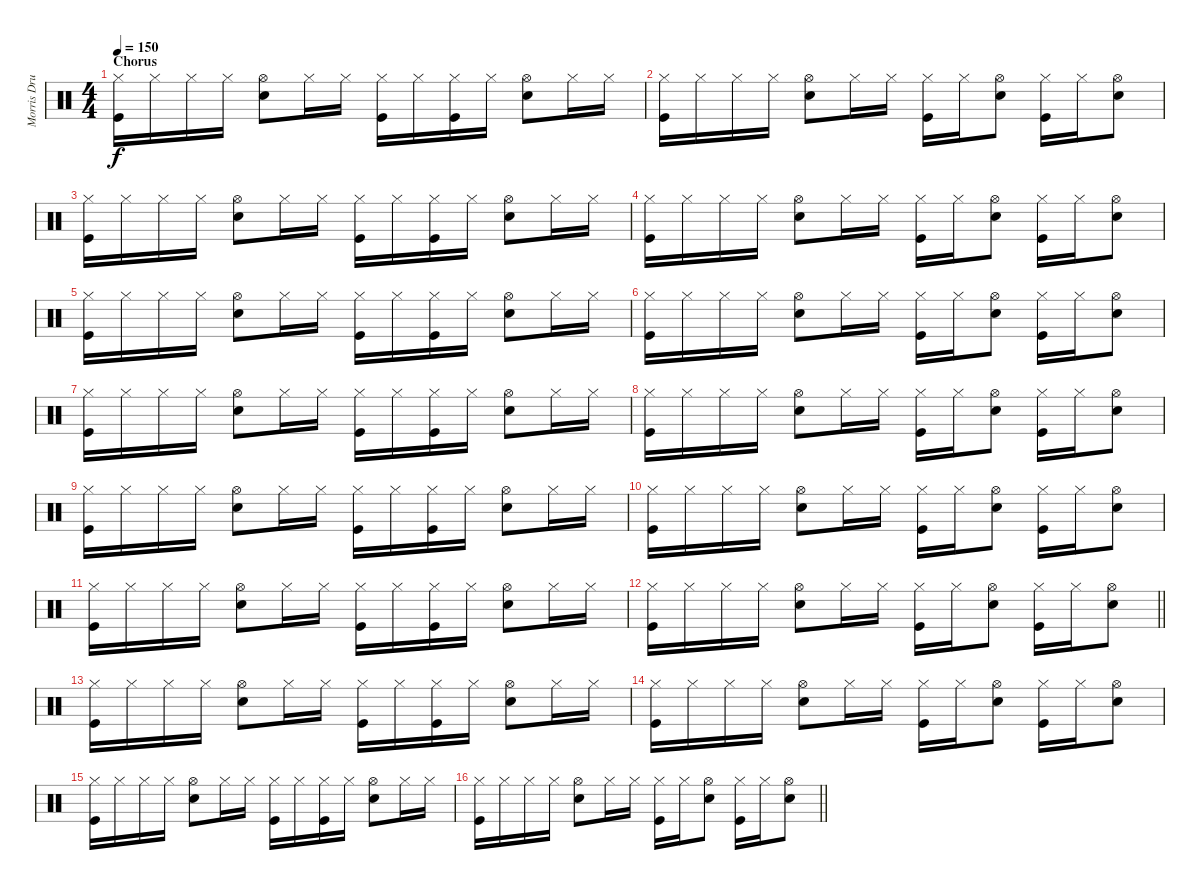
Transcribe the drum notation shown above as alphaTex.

\track ("Morris Drums" "Morris Dru") {instrument percussion}
\staff {score}
\articulation defaults
\ts (4 4)
\section ("" "Chorus")
\tempo 150
\clef neutral
\ks c
("Hi-Hat (closed)" "Kick (hit)").16{dy f} "Hi-Hat (closed)".16 "Hi-Hat (closed)".16 "Hi-Hat (closed)".16 ("Hi-Hat (open)" "Snare (hit) 2").8 "Hi-Hat (closed)".16 "Hi-Hat (closed)".16 ("Hi-Hat (closed)" "Kick (hit)").16 "Hi-Hat (closed)".16 ("Hi-Hat (closed)" "Kick (hit)").16 "Hi-Hat (closed)".16 ("Hi-Hat (open)" "Snare (hit) 2").8 "Hi-Hat (closed)".16 "Hi-Hat (closed)".16 |
("Hi-Hat (closed)" "Kick (hit)").16 "Hi-Hat (closed)".16 "Hi-Hat (closed)".16 "Hi-Hat (closed)".16 ("Hi-Hat (open)" "Snare (hit) 2").8 "Hi-Hat (closed)".16 "Hi-Hat (closed)".16 ("Hi-Hat (closed)" "Kick (hit)").16 "Hi-Hat (closed)".16 ("Hi-Hat (open)" "Snare (hit) 2").8 ("Hi-Hat (closed)" "Kick (hit)").16 "Hi-Hat (closed)".16 ("Hi-Hat (open)" "Snare (hit) 2").8 |
("Hi-Hat (closed)" "Kick (hit)").16 "Hi-Hat (closed)".16 "Hi-Hat (closed)".16 "Hi-Hat (closed)".16 ("Hi-Hat (open)" "Snare (hit) 2").8 "Hi-Hat (closed)".16 "Hi-Hat (closed)".16 ("Hi-Hat (closed)" "Kick (hit)").16 "Hi-Hat (closed)".16 ("Hi-Hat (closed)" "Kick (hit)").16 "Hi-Hat (closed)".16 ("Hi-Hat (open)" "Snare (hit) 2").8 "Hi-Hat (closed)".16 "Hi-Hat (closed)".16 |
("Hi-Hat (closed)" "Kick (hit)").16 "Hi-Hat (closed)".16 "Hi-Hat (closed)".16 "Hi-Hat (closed)".16 ("Hi-Hat (open)" "Snare (hit) 2").8 "Hi-Hat (closed)".16 "Hi-Hat (closed)".16 ("Hi-Hat (closed)" "Kick (hit)").16 "Hi-Hat (closed)".16 ("Hi-Hat (open)" "Snare (hit) 2").8 ("Hi-Hat (closed)" "Kick (hit)").16 "Hi-Hat (closed)".16 ("Hi-Hat (open)" "Snare (hit) 2").8 |
("Hi-Hat (closed)" "Kick (hit)").16 "Hi-Hat (closed)".16 "Hi-Hat (closed)".16 "Hi-Hat (closed)".16 ("Hi-Hat (open)" "Snare (hit) 2").8 "Hi-Hat (closed)".16 "Hi-Hat (closed)".16 ("Hi-Hat (closed)" "Kick (hit)").16 "Hi-Hat (closed)".16 ("Hi-Hat (closed)" "Kick (hit)").16 "Hi-Hat (closed)".16 ("Hi-Hat (open)" "Snare (hit) 2").8 "Hi-Hat (closed)".16 "Hi-Hat (closed)".16 |
("Hi-Hat (closed)" "Kick (hit)").16 "Hi-Hat (closed)".16 "Hi-Hat (closed)".16 "Hi-Hat (closed)".16 ("Hi-Hat (open)" "Snare (hit) 2").8 "Hi-Hat (closed)".16 "Hi-Hat (closed)".16 ("Hi-Hat (closed)" "Kick (hit)").16 "Hi-Hat (closed)".16 ("Hi-Hat (open)" "Snare (hit) 2").8 ("Hi-Hat (closed)" "Kick (hit)").16 "Hi-Hat (closed)".16 ("Hi-Hat (open)" "Snare (hit) 2").8 |
("Hi-Hat (closed)" "Kick (hit)").16 "Hi-Hat (closed)".16 "Hi-Hat (closed)".16 "Hi-Hat (closed)".16 ("Hi-Hat (open)" "Snare (hit) 2").8 "Hi-Hat (closed)".16 "Hi-Hat (closed)".16 ("Hi-Hat (closed)" "Kick (hit)").16 "Hi-Hat (closed)".16 ("Hi-Hat (closed)" "Kick (hit)").16 "Hi-Hat (closed)".16 ("Hi-Hat (open)" "Snare (hit) 2").8 "Hi-Hat (closed)".16 "Hi-Hat (closed)".16 |
("Hi-Hat (closed)" "Kick (hit)").16 "Hi-Hat (closed)".16 "Hi-Hat (closed)".16 "Hi-Hat (closed)".16 ("Hi-Hat (open)" "Snare (hit) 2").8 "Hi-Hat (closed)".16 "Hi-Hat (closed)".16 ("Hi-Hat (closed)" "Kick (hit)").16 "Hi-Hat (closed)".16 ("Hi-Hat (open)" "Snare (hit) 2").8 ("Hi-Hat (closed)" "Kick (hit)").16 "Hi-Hat (closed)".16 ("Hi-Hat (open)" "Snare (hit) 2").8 |
("Hi-Hat (closed)" "Kick (hit)").16 "Hi-Hat (closed)".16 "Hi-Hat (closed)".16 "Hi-Hat (closed)".16 ("Hi-Hat (open)" "Snare (hit) 2").8 "Hi-Hat (closed)".16 "Hi-Hat (closed)".16 ("Hi-Hat (closed)" "Kick (hit)").16 "Hi-Hat (closed)".16 ("Hi-Hat (closed)" "Kick (hit)").16 "Hi-Hat (closed)".16 ("Hi-Hat (open)" "Snare (hit) 2").8 "Hi-Hat (closed)".16 "Hi-Hat (closed)".16 |
("Hi-Hat (closed)" "Kick (hit)").16 "Hi-Hat (closed)".16 "Hi-Hat (closed)".16 "Hi-Hat (closed)".16 ("Hi-Hat (open)" "Snare (hit) 2").8 "Hi-Hat (closed)".16 "Hi-Hat (closed)".16 ("Hi-Hat (closed)" "Kick (hit)").16 "Hi-Hat (closed)".16 ("Hi-Hat (open)" "Snare (hit) 2").8 ("Hi-Hat (closed)" "Kick (hit)").16 "Hi-Hat (closed)".16 ("Hi-Hat (open)" "Snare (hit) 2").8 |
("Hi-Hat (closed)" "Kick (hit)").16 "Hi-Hat (closed)".16 "Hi-Hat (closed)".16 "Hi-Hat (closed)".16 ("Hi-Hat (open)" "Snare (hit) 2").8 "Hi-Hat (closed)".16 "Hi-Hat (closed)".16 ("Hi-Hat (closed)" "Kick (hit)").16 "Hi-Hat (closed)".16 ("Hi-Hat (closed)" "Kick (hit)").16 "Hi-Hat (closed)".16 ("Hi-Hat (open)" "Snare (hit) 2").8 "Hi-Hat (closed)".16 "Hi-Hat (closed)".16 |
\barLineRight lightlight
("Hi-Hat (closed)" "Kick (hit)").16 "Hi-Hat (closed)".16 "Hi-Hat (closed)".16 "Hi-Hat (closed)".16 ("Hi-Hat (open)" "Snare (hit) 2").8 "Hi-Hat (closed)".16 "Hi-Hat (closed)".16 ("Hi-Hat (closed)" "Kick (hit)").16 "Hi-Hat (closed)".16 ("Hi-Hat (open)" "Snare (hit) 2").8 ("Hi-Hat (closed)" "Kick (hit)").16 "Hi-Hat (closed)".16 ("Hi-Hat (open)" "Snare (hit) 2").8 |
("Hi-Hat (closed)" "Kick (hit)").16 "Hi-Hat (closed)".16 "Hi-Hat (closed)".16 "Hi-Hat (closed)".16 ("Hi-Hat (open)" "Snare (hit) 2").8 "Hi-Hat (closed)".16 "Hi-Hat (closed)".16 ("Hi-Hat (closed)" "Kick (hit)").16 "Hi-Hat (closed)".16 ("Hi-Hat (closed)" "Kick (hit)").16 "Hi-Hat (closed)".16 ("Hi-Hat (open)" "Snare (hit) 2").8 "Hi-Hat (closed)".16 "Hi-Hat (closed)".16 |
("Hi-Hat (closed)" "Kick (hit)").16 "Hi-Hat (closed)".16 "Hi-Hat (closed)".16 "Hi-Hat (closed)".16 ("Hi-Hat (open)" "Snare (hit) 2").8 "Hi-Hat (closed)".16 "Hi-Hat (closed)".16 ("Hi-Hat (closed)" "Kick (hit)").16 "Hi-Hat (closed)".16 ("Hi-Hat (open)" "Snare (hit) 2").8 ("Hi-Hat (closed)" "Kick (hit)").16 "Hi-Hat (closed)".16 ("Hi-Hat (open)" "Snare (hit) 2").8 |
("Hi-Hat (closed)" "Kick (hit)").16 "Hi-Hat (closed)".16 "Hi-Hat (closed)".16 "Hi-Hat (closed)".16 ("Hi-Hat (open)" "Snare (hit) 2").8 "Hi-Hat (closed)".16 "Hi-Hat (closed)".16 ("Hi-Hat (closed)" "Kick (hit)").16 "Hi-Hat (closed)".16 ("Hi-Hat (closed)" "Kick (hit)").16 "Hi-Hat (closed)".16 ("Hi-Hat (open)" "Snare (hit) 2").8 "Hi-Hat (closed)".16 "Hi-Hat (closed)".16 |
\barLineRight lightlight
("Hi-Hat (closed)" "Kick (hit)").16 "Hi-Hat (closed)".16 "Hi-Hat (closed)".16 "Hi-Hat (closed)".16 ("Hi-Hat (open)" "Snare (hit) 2").8 "Hi-Hat (closed)".16 "Hi-Hat (closed)".16 ("Hi-Hat (closed)" "Kick (hit)").16 "Hi-Hat (closed)".16 ("Hi-Hat (open)" "Snare (hit) 2").8 ("Hi-Hat (closed)" "Kick (hit)").16 "Hi-Hat (closed)".16 ("Hi-Hat (open)" "Snare (hit) 2").8
